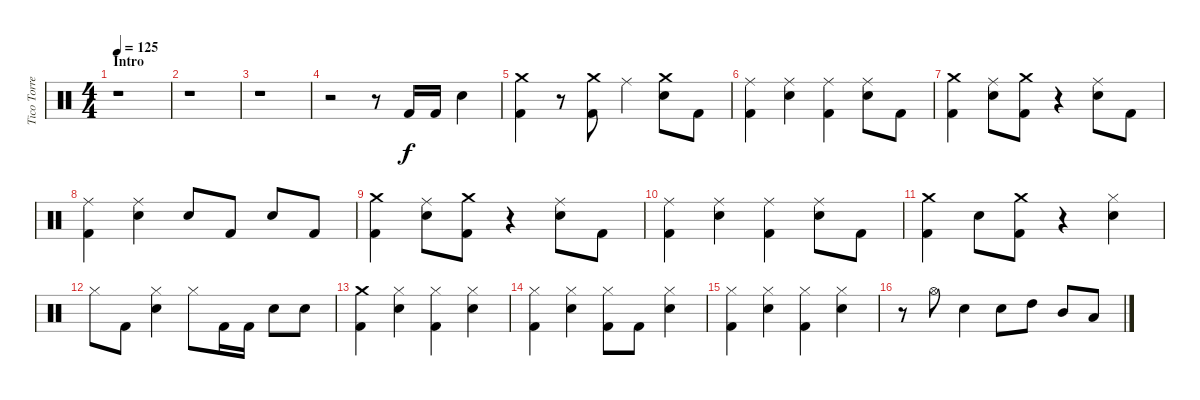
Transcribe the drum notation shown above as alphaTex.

\track ("Tico Torres" "Tico Torre") {instrument percussion}
\staff {score}
\articulation defaults
\ts (4 4)
\section ("" "Intro")
\tempo 125
\clef neutral
\ks c
r.1{dy f} |
r.1 |
r.1 |
r.2 r.8 "Kick (hit) 2".16 "Kick (hit) 2".16 "Snare (hit) 2".4 |
("Crash medium (hit)" "Kick (hit) 2").4 r.8 ("Crash medium (hit)" "Kick (hit) 2").8 "Ride (middle)".4 ("Crash medium (hit)" "Snare (hit) 2").8 "Kick (hit) 2".8 |
("Ride (middle)" "Kick (hit) 2").4 ("Ride (middle)" "Snare (hit) 2").4 ("Ride (middle)" "Kick (hit) 2").4 ("Ride (middle)" "Snare (hit) 2").8 "Kick (hit) 2".8 |
("Crash medium (hit)" "Kick (hit) 2").4 ("Ride (middle)" "Snare (hit) 2").8 ("Crash medium (hit)" "Kick (hit) 2").8 r.4 ("Ride (middle)" "Snare (hit) 2").8 "Kick (hit) 2".8 |
("Ride (middle)" "Kick (hit) 2").4 ("Ride (middle)" "Snare (hit) 2").4 "Snare (hit) 2".8 "Kick (hit) 2".8 "Snare (hit) 2".8 "Kick (hit) 2".8 |
("Crash medium (hit)" "Kick (hit) 2").4 ("Ride (middle)" "Snare (hit) 2").8 ("Crash medium (hit)" "Kick (hit) 2").8 r.4 ("Ride (middle)" "Snare (hit) 2").8 "Kick (hit) 2".8 |
("Ride (middle)" "Kick (hit) 2").4 ("Ride (middle)" "Snare (hit) 2").4 ("Ride (middle)" "Kick (hit) 2").4 ("Ride (middle)" "Snare (hit) 2").8 "Kick (hit) 2".8 |
("Crash medium (hit)" "Kick (hit) 2").4 "Snare (hit) 2".8 ("Crash medium (hit)" "Kick (hit) 2").8 r.4 ("Hi-Hat (closed)" "Snare (hit) 2").4 |
"Hi-Hat (closed)".8 "Kick (hit) 2".8 ("Hi-Hat (closed)" "Snare (hit) 2").4 "Hi-Hat (closed)".8 "Kick (hit) 2".16 "Kick (hit) 2".16 "Snare (hit) 2".8 "Snare (hit) 2".8 |
("Crash medium (hit)" "Kick (hit) 2").4 ("Hi-Hat (closed)" "Snare (hit) 2").4 ("Hi-Hat (closed)" "Kick (hit) 2").4 ("Hi-Hat (closed)" "Snare (hit) 2").4 |
("Hi-Hat (closed)" "Kick (hit) 2").4 ("Hi-Hat (closed)" "Snare (hit) 2").4 ("Hi-Hat (closed)" "Kick (hit) 2").8 "Kick (hit) 2".8 ("Hi-Hat (closed)" "Snare (hit) 2").4 |
("Hi-Hat (closed)" "Kick (hit) 2").4 ("Hi-Hat (closed)" "Snare (hit) 2").4 ("Hi-Hat (closed)" "Kick (hit) 2").4 ("Hi-Hat (closed)" "Snare (hit) 2").4 |
r.8 "Hi-Hat (open)".8 "Snare (hit) 2".4 "Snare (hit) 2".8 "High Tom (hit)".8 "Mid Tom (hit)".8 "Low Tom (hit)".8
